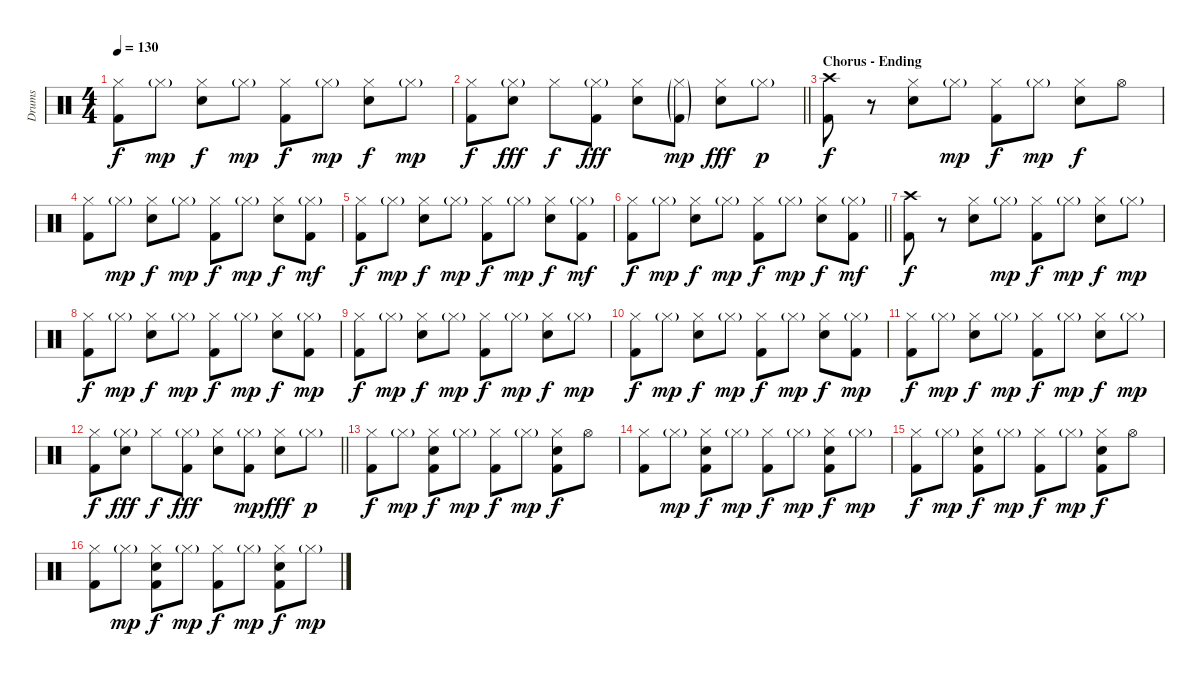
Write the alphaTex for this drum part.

\track ("Drums" "Drums") {instrument percussion}
\staff {score}
\articulation defaults
\ts (4 4)
\tempo 130
\clef neutral
\ks c
("Hi-Hat (closed)" "Kick (hit) 2").8{dy f} "Hi-Hat (closed)"{g}.8{dy mp} ("Hi-Hat (closed)" "Snare (hit) 2").8{dy f} "Hi-Hat (closed)"{g}.8{dy mp} ("Hi-Hat (closed)" "Kick (hit) 2").8{dy f} "Hi-Hat (closed)"{g}.8{dy mp} ("Hi-Hat (closed)" "Snare (hit) 2").8{dy f} "Hi-Hat (closed)"{g}.8{dy mp} |
\barLineRight lightlight
("Hi-Hat (closed)" "Kick (hit) 2").8{dy f} ("Hi-Hat (closed)"{g} "Snare (hit) 2").8{dy fff} "Hi-Hat (closed)".8{dy f} ("Hi-Hat (closed)"{g} "Kick (hit) 2").8{dy fff} ("Hi-Hat (closed)" "Snare (hit) 2").8 ("Hi-Hat (closed)"{g} "Kick (hit) 2"{g}).8{dy mp} ("Hi-Hat (closed)" "Snare (hit) 2").8{dy fff} "Hi-Hat (closed)"{g}.8{dy p} |
\section ("" "Chorus - Ending")
("Crash high (hit)" "Kick (hit) 2").8{dy f} r.8 ("Hi-Hat (closed)" "Snare (hit) 2").8 "Hi-Hat (closed)"{g}.8{dy mp} ("Hi-Hat (closed)" "Kick (hit) 2").8{dy f} "Hi-Hat (closed)"{g}.8{dy mp} ("Hi-Hat (closed)" "Snare (hit) 2").8{dy f} "Hi-Hat (open)".8 |
("Hi-Hat (closed)" "Kick (hit) 2").8 "Hi-Hat (closed)"{g}.8{dy mp} ("Hi-Hat (closed)" "Snare (hit) 2").8{dy f} "Hi-Hat (closed)"{g}.8{dy mp} ("Hi-Hat (closed)" "Kick (hit) 2").8{dy f} "Hi-Hat (closed)"{g}.8{dy mp} ("Hi-Hat (closed)" "Snare (hit) 2").8{dy f} ("Hi-Hat (closed)"{g} "Kick (hit) 2").8{dy mf} |
("Hi-Hat (closed)" "Kick (hit) 2").8{dy f} "Hi-Hat (closed)"{g}.8{dy mp} ("Hi-Hat (closed)" "Snare (hit) 2").8{dy f} "Hi-Hat (closed)"{g}.8{dy mp} ("Hi-Hat (closed)" "Kick (hit) 2").8{dy f} "Hi-Hat (closed)"{g}.8{dy mp} ("Hi-Hat (closed)" "Snare (hit) 2").8{dy f} ("Hi-Hat (closed)"{g} "Kick (hit) 2").8{dy mf} |
\barLineRight lightlight
("Hi-Hat (closed)" "Kick (hit) 2").8{dy f} "Hi-Hat (closed)"{g}.8{dy mp} ("Hi-Hat (closed)" "Snare (hit) 2").8{dy f} "Hi-Hat (closed)"{g}.8{dy mp} ("Hi-Hat (closed)" "Kick (hit) 2").8{dy f} "Hi-Hat (closed)"{g}.8{dy mp} ("Hi-Hat (closed)" "Snare (hit) 2").8{dy f} ("Hi-Hat (closed)"{g} "Kick (hit) 2").8{dy mf} |
("Crash high (hit)" "Kick (hit) 2").8{dy f} r.8 ("Hi-Hat (closed)" "Snare (hit) 2").8 "Hi-Hat (closed)"{g}.8{dy mp} ("Hi-Hat (closed)" "Kick (hit) 2").8{dy f} "Hi-Hat (closed)"{g}.8{dy mp} ("Hi-Hat (closed)" "Snare (hit) 2").8{dy f} "Hi-Hat (closed)"{g}.8{dy mp} |
("Hi-Hat (closed)" "Kick (hit) 2").8{dy f} "Hi-Hat (closed)"{g}.8{dy mp} ("Hi-Hat (closed)" "Snare (hit) 2").8{dy f} "Hi-Hat (closed)"{g}.8{dy mp} ("Hi-Hat (closed)" "Kick (hit) 2").8{dy f} "Hi-Hat (closed)"{g}.8{dy mp} ("Hi-Hat (closed)" "Snare (hit) 2").8{dy f} ("Hi-Hat (closed)"{g} "Kick (hit) 2").8{dy mp} |
("Hi-Hat (closed)" "Kick (hit) 2").8{dy f} "Hi-Hat (closed)"{g}.8{dy mp} ("Hi-Hat (closed)" "Snare (hit) 2").8{dy f} "Hi-Hat (closed)"{g}.8{dy mp} ("Hi-Hat (closed)" "Kick (hit) 2").8{dy f} "Hi-Hat (closed)"{g}.8{dy mp} ("Hi-Hat (closed)" "Snare (hit) 2").8{dy f} "Hi-Hat (closed)"{g}.8{dy mp} |
("Hi-Hat (closed)" "Kick (hit) 2").8{dy f} "Hi-Hat (closed)"{g}.8{dy mp} ("Hi-Hat (closed)" "Snare (hit) 2").8{dy f} "Hi-Hat (closed)"{g}.8{dy mp} ("Hi-Hat (closed)" "Kick (hit) 2").8{dy f} "Hi-Hat (closed)"{g}.8{dy mp} ("Hi-Hat (closed)" "Snare (hit) 2").8{dy f} ("Hi-Hat (closed)"{g} "Kick (hit) 2").8{dy mp} |
("Hi-Hat (closed)" "Kick (hit) 2").8{dy f} "Hi-Hat (closed)"{g}.8{dy mp} ("Hi-Hat (closed)" "Snare (hit) 2").8{dy f} "Hi-Hat (closed)"{g}.8{dy mp} ("Hi-Hat (closed)" "Kick (hit) 2").8{dy f} "Hi-Hat (closed)"{g}.8{dy mp} ("Hi-Hat (closed)" "Snare (hit) 2").8{dy f} "Hi-Hat (closed)"{g}.8{dy mp} |
\barLineRight lightlight
("Hi-Hat (closed)" "Kick (hit) 2").8{dy f} ("Hi-Hat (closed)"{g} "Snare (hit) 2").8{dy fff} "Hi-Hat (closed)".8{dy f} ("Hi-Hat (closed)"{g} "Kick (hit) 2").8{dy fff} ("Hi-Hat (closed)" "Snare (hit) 2").8 ("Hi-Hat (closed)"{g} "Kick (hit) 2").8{dy mp} ("Hi-Hat (closed)" "Snare (hit) 2").8{dy fff} "Hi-Hat (closed)"{g}.8{dy p} |
("Hi-Hat (closed)" "Kick (hit) 2").8{dy f} "Hi-Hat (closed)"{g}.8{dy mp} ("Hi-Hat (closed)" "Snare (hit) 2" "Kick (hit) 2").8{dy f} "Hi-Hat (closed)"{g}.8{dy mp} ("Hi-Hat (closed)" "Kick (hit) 2").8{dy f} "Hi-Hat (closed)"{g}.8{dy mp} ("Hi-Hat (closed)" "Snare (hit) 2" "Kick (hit) 2").8{dy f} "Hi-Hat (open)".8 |
("Hi-Hat (closed)" "Kick (hit) 2").8 "Hi-Hat (closed)"{g}.8{dy mp} ("Hi-Hat (closed)" "Snare (hit) 2" "Kick (hit) 2").8{dy f} "Hi-Hat (closed)"{g}.8{dy mp} ("Hi-Hat (closed)" "Kick (hit) 2").8{dy f} "Hi-Hat (closed)"{g}.8{dy mp} ("Hi-Hat (closed)" "Snare (hit) 2" "Kick (hit) 2").8{dy f} "Hi-Hat (closed)"{g}.8{dy mp} |
("Hi-Hat (closed)" "Kick (hit) 2").8{dy f} "Hi-Hat (closed)"{g}.8{dy mp} ("Hi-Hat (closed)" "Snare (hit) 2" "Kick (hit) 2").8{dy f} "Hi-Hat (closed)"{g}.8{dy mp} ("Hi-Hat (closed)" "Kick (hit) 2").8{dy f} "Hi-Hat (closed)"{g}.8{dy mp} ("Hi-Hat (closed)" "Snare (hit) 2" "Kick (hit) 2").8{dy f} "Hi-Hat (open)".8 |
("Hi-Hat (closed)" "Kick (hit) 2").8 "Hi-Hat (closed)"{g}.8{dy mp} ("Hi-Hat (closed)" "Snare (hit) 2" "Kick (hit) 2").8{dy f} "Hi-Hat (closed)"{g}.8{dy mp} ("Hi-Hat (closed)" "Kick (hit) 2").8{dy f} "Hi-Hat (closed)"{g}.8{dy mp} ("Hi-Hat (closed)" "Snare (hit) 2" "Kick (hit) 2").8{dy f} "Hi-Hat (closed)"{g}.8{dy mp}
